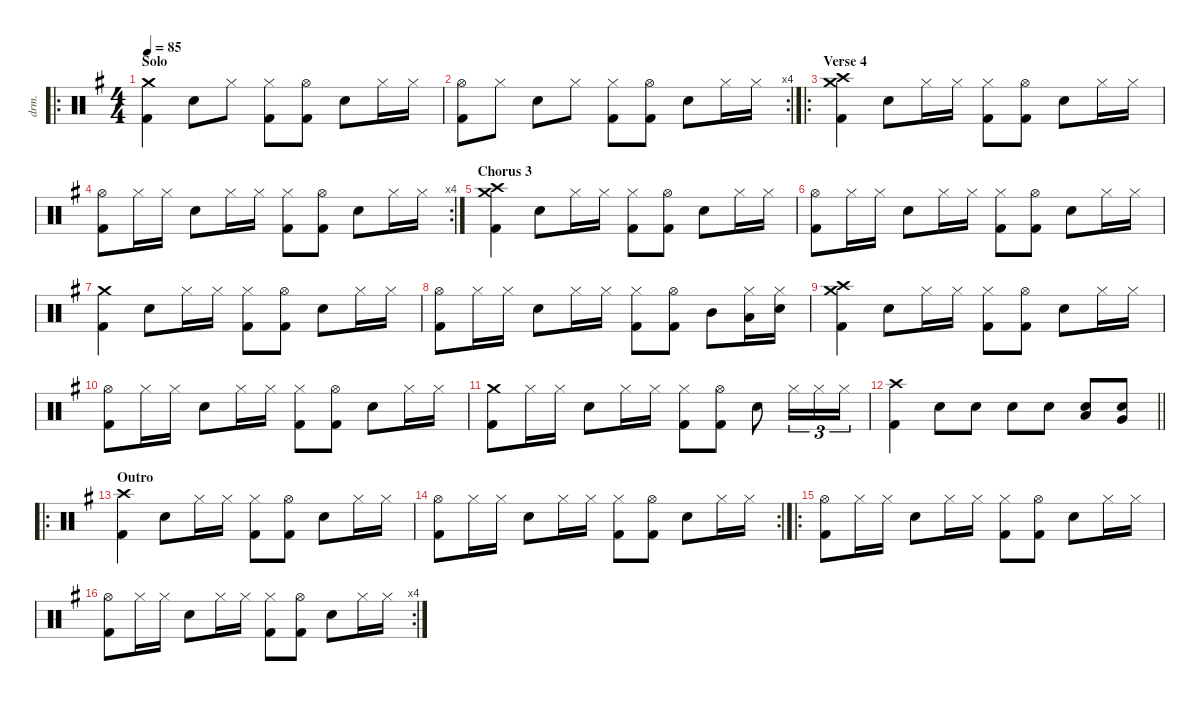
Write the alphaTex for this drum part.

\defaultSystemsLayout 4
\hideDynamics
\bracketExtendMode nobrackets
\otherSystemsTrackNameOrientation horizontal
\track ("Drums" "drm.") {defaultSystemsLayout 4 instrument percussion}
\staff {score}
\articulation defaults
\ro
\ts (4 4)
\section ("" "Solo")
\tempo 85
\clef neutral
\ks g
("Crash medium (hit)"{acc forcenatural} "Kick (hit) 2"{acc forcenatural}).4{dy f beam Down} "Snare (hit) 2"{acc forcenatural}.8{beam Down} "Hi-Hat (closed)"{acc forcenatural}.8{beam Down} ("Hi-Hat (closed)"{acc forcenatural} "Kick (hit) 2"{acc forcenatural}).8{beam Down} ("Hi-Hat (open)"{acc forcenatural} "Kick (hit) 2"{acc forcenatural}).8{beam Down} "Snare (hit) 2"{acc forcenatural}.8{beam Down} "Hi-Hat (closed)"{acc forcenatural}.16{beam Down} "Hi-Hat (closed)"{acc forcenatural}.16{beam Down} |
\rc 4
("Hi-Hat (open)"{acc forcenatural} "Kick (hit) 2"{acc forcenatural}).8{beam Down} "Hi-Hat (closed)"{acc forcenatural}.8{beam Down} "Snare (hit) 2"{acc forcenatural}.8{beam Down} "Hi-Hat (closed)"{acc forcenatural}.8{beam Down} ("Hi-Hat (closed)"{acc forcenatural} "Kick (hit) 2"{acc forcenatural}).8{beam Down} ("Hi-Hat (open)"{acc forcenatural} "Kick (hit) 2"{acc forcenatural}).8{beam Down} "Snare (hit) 2"{acc forcenatural}.8{beam Down} "Hi-Hat (closed)"{acc forcenatural}.16{beam Down} "Hi-Hat (closed)"{acc forcenatural}.16{beam Down} |
\ro
\section ("" "Verse 4")
("Crash medium (hit)"{acc forcenatural} "Crash high (hit)"{acc forcenatural} "Kick (hit) 2"{acc forcenatural}).4{beam Down} "Snare (hit) 2"{acc forcenatural}.8{beam Down} "Hi-Hat (closed)"{acc forcenatural}.16{beam Down} "Hi-Hat (closed)"{acc forcenatural}.16{beam Down} ("Hi-Hat (closed)"{acc forcenatural} "Kick (hit) 2"{acc forcenatural}).8{beam Down} ("Hi-Hat (open)"{acc forcenatural} "Kick (hit) 2"{acc forcenatural}).8{beam Down} "Snare (hit) 2"{acc forcenatural}.8{beam Down} "Hi-Hat (closed)"{acc forcenatural}.16{beam Down} "Hi-Hat (closed)"{acc forcenatural}.16{beam Down} |
\rc 4
("Hi-Hat (open)"{acc forcenatural} "Kick (hit) 2"{acc forcenatural}).8{beam Down} "Hi-Hat (closed)"{acc forcenatural}.16{beam Down} "Hi-Hat (closed)"{acc forcenatural}.16{beam Down} "Snare (hit) 2"{acc forcenatural}.8{beam Down} "Hi-Hat (closed)"{acc forcenatural}.16{beam Down} "Hi-Hat (closed)"{acc forcenatural}.16{beam Down} ("Hi-Hat (closed)"{acc forcenatural} "Kick (hit) 2"{acc forcenatural}).8{beam Down} ("Hi-Hat (open)"{acc forcenatural} "Kick (hit) 2"{acc forcenatural}).8{beam Down} "Snare (hit) 2"{acc forcenatural}.8{beam Down} "Hi-Hat (closed)"{acc forcenatural}.16{beam Down} "Hi-Hat (closed)"{acc forcenatural}.16{beam Down} |
\section ("" "Chorus 3")
("Crash medium (hit)"{acc forcenatural} "Crash high (hit)"{acc forcenatural} "Kick (hit) 2"{acc forcenatural}).4 "Snare (hit) 2"{acc forcenatural}.8 "Hi-Hat (closed)"{acc forcenatural}.16 "Hi-Hat (closed)"{acc forcenatural}.16 ("Hi-Hat (closed)"{acc forcenatural} "Kick (hit) 2"{acc forcenatural}).8 ("Hi-Hat (open)"{acc forcenatural} "Kick (hit) 2"{acc forcenatural}).8 "Snare (hit) 2"{acc forcenatural}.8 "Hi-Hat (closed)"{acc forcenatural}.16 "Hi-Hat (closed)"{acc forcenatural}.16 |
("Hi-Hat (open)"{acc forcenatural} "Kick (hit) 2"{acc forcenatural}).8 "Hi-Hat (closed)"{acc forcenatural}.16 "Hi-Hat (closed)"{acc forcenatural}.16 "Snare (hit) 2"{acc forcenatural}.8 "Hi-Hat (closed)"{acc forcenatural}.16 "Hi-Hat (closed)"{acc forcenatural}.16 ("Hi-Hat (closed)"{acc forcenatural} "Kick (hit) 2"{acc forcenatural}).8 ("Hi-Hat (open)"{acc forcenatural} "Kick (hit) 2"{acc forcenatural}).8 "Snare (hit) 2"{acc forcenatural}.8 "Hi-Hat (closed)"{acc forcenatural}.16 "Hi-Hat (closed)"{acc forcenatural}.16 |
("Crash medium (hit)"{acc forcenatural} "Kick (hit) 2"{acc forcenatural}).4 "Snare (hit) 2"{acc forcenatural}.8 "Hi-Hat (closed)"{acc forcenatural}.16 "Hi-Hat (closed)"{acc forcenatural}.16 ("Hi-Hat (closed)"{acc forcenatural} "Kick (hit) 2"{acc forcenatural}).8 ("Hi-Hat (open)"{acc forcenatural} "Kick (hit) 2"{acc forcenatural}).8 "Snare (hit) 2"{acc forcenatural}.8 "Hi-Hat (closed)"{acc forcenatural}.16 "Hi-Hat (closed)"{acc forcenatural}.16 |
("Hi-Hat (open)"{acc forcenatural} "Kick (hit) 2"{acc forcenatural}).8 "Hi-Hat (closed)"{acc forcenatural}.16 "Hi-Hat (closed)"{acc forcenatural}.16 "Snare (hit) 2"{acc forcenatural}.8 "Hi-Hat (closed)"{acc forcenatural}.16 "Hi-Hat (closed)"{acc forcenatural}.16 ("Hi-Hat (closed)"{acc forcenatural} "Kick (hit) 2"{acc forcenatural}).8 ("Hi-Hat (open)"{acc forcenatural} "Kick (hit) 2"{acc forcenatural}).8 "Mid Tom (hit)"{acc forcenatural}.8 ("Hi-Hat (closed)"{acc forcenatural} "Low Tom (hit)"{acc forcenatural}).16 ("Hi-Hat (closed)"{acc forcenatural} "Snare (hit) 2"{acc forcenatural}).16 |
("Crash medium (hit)"{acc forcenatural} "Crash high (hit)"{acc forcenatural} "Kick (hit) 2"{acc forcenatural}).4 "Snare (hit) 2"{acc forcenatural}.8 "Hi-Hat (closed)"{acc forcenatural}.16 "Hi-Hat (closed)"{acc forcenatural}.16 ("Hi-Hat (closed)"{acc forcenatural} "Kick (hit) 2"{acc forcenatural}).8 ("Hi-Hat (open)"{acc forcenatural} "Kick (hit) 2"{acc forcenatural}).8 "Snare (hit) 2"{acc forcenatural}.8 "Hi-Hat (closed)"{acc forcenatural}.16 "Hi-Hat (closed)"{acc forcenatural}.16 |
("Hi-Hat (open)"{acc forcenatural} "Kick (hit) 2"{acc forcenatural}).8 "Hi-Hat (closed)"{acc forcenatural}.16 "Hi-Hat (closed)"{acc forcenatural}.16 "Snare (hit) 2"{acc forcenatural}.8 "Hi-Hat (closed)"{acc forcenatural}.16 "Hi-Hat (closed)"{acc forcenatural}.16 ("Hi-Hat (closed)"{acc forcenatural} "Kick (hit) 2"{acc forcenatural}).8 ("Hi-Hat (open)"{acc forcenatural} "Kick (hit) 2"{acc forcenatural}).8 "Snare (hit) 2"{acc forcenatural}.8 "Hi-Hat (closed)"{acc forcenatural}.16 "Hi-Hat (closed)"{acc forcenatural}.16 |
("Crash medium (hit)"{acc forcenatural} "Kick (hit) 2"{acc forcenatural}).8 "Hi-Hat (closed)"{acc forcenatural}.16 "Hi-Hat (closed)"{acc forcenatural}.16 "Snare (hit) 2"{acc forcenatural}.8 "Hi-Hat (closed)"{acc forcenatural}.16 "Hi-Hat (closed)"{acc forcenatural}.16 ("Hi-Hat (closed)"{acc forcenatural} "Kick (hit) 2"{acc forcenatural}).8 ("Hi-Hat (open)"{acc forcenatural} "Kick (hit) 2"{acc forcenatural}).8 "Snare (hit) 2"{acc forcenatural}.8 "Hi-Hat (closed)"{acc forcenatural}.16{tu (3 2)} "Hi-Hat (closed)"{acc forcenatural}.16{tu (3 2)} "Hi-Hat (closed)"{acc forcenatural}.16{tu (3 2)} |
\barLineRight lightlight
("Crash high (hit)"{acc forcenatural} "Kick (hit) 2"{acc forcenatural}).4 "Snare (hit) 2"{acc forcenatural}.8{dy p} "Snare (hit) 2"{acc forcenatural}.8{dy mp} "Snare (hit) 2"{acc forcenatural}.8{dy mf} "Snare (hit) 2"{acc forcenatural}.8 ("Snare (hit) 2"{acc forcenatural} "Low Tom (hit)"{acc forcenatural}).8{dy f} ("Snare (hit) 2"{acc forcenatural} "Very Low Tom (hit)"{acc forcenatural}).8 |
\ro
\section ("" "Outro")
("Crash high (hit)"{acc forcenatural} "Kick (hit) 2"{acc forcenatural}).4 "Snare (hit) 2"{acc forcenatural}.8 "Hi-Hat (closed)"{acc forcenatural}.16 "Hi-Hat (closed)"{acc forcenatural}.16 ("Hi-Hat (closed)"{acc forcenatural} "Kick (hit) 2"{acc forcenatural}).8 ("Hi-Hat (open)"{acc forcenatural} "Kick (hit) 2"{acc forcenatural}).8 "Snare (hit) 2"{acc forcenatural}.8 "Hi-Hat (closed)"{acc forcenatural}.16 "Hi-Hat (closed)"{acc forcenatural}.16 |
\rc 2
("Hi-Hat (open)"{acc forcenatural} "Kick (hit) 2"{acc forcenatural}).8 "Hi-Hat (closed)"{acc forcenatural}.16 "Hi-Hat (closed)"{acc forcenatural}.16 "Snare (hit) 2"{acc forcenatural}.8 "Hi-Hat (closed)"{acc forcenatural}.16 "Hi-Hat (closed)"{acc forcenatural}.16 ("Hi-Hat (closed)"{acc forcenatural} "Kick (hit) 2"{acc forcenatural}).8 ("Hi-Hat (open)"{acc forcenatural} "Kick (hit) 2"{acc forcenatural}).8 "Snare (hit) 2"{acc forcenatural}.8 "Hi-Hat (closed)"{acc forcenatural}.16 "Hi-Hat (closed)"{acc forcenatural}.16 |
\ro
("Hi-Hat (open)"{acc forcenatural} "Kick (hit) 2"{acc forcenatural}).8 "Hi-Hat (closed)"{acc forcenatural}.16 "Hi-Hat (closed)"{acc forcenatural}.16 "Snare (hit) 2"{acc forcenatural}.8 "Hi-Hat (closed)"{acc forcenatural}.16 "Hi-Hat (closed)"{acc forcenatural}.16 ("Hi-Hat (closed)"{acc forcenatural} "Kick (hit) 2"{acc forcenatural}).8 ("Hi-Hat (open)"{acc forcenatural} "Kick (hit) 2"{acc forcenatural}).8 "Snare (hit) 2"{acc forcenatural}.8 "Hi-Hat (closed)"{acc forcenatural}.16 "Hi-Hat (closed)"{acc forcenatural}.16 |
\rc 4
("Hi-Hat (open)"{acc forcenatural} "Kick (hit) 2"{acc forcenatural}).8 "Hi-Hat (closed)"{acc forcenatural}.16 "Hi-Hat (closed)"{acc forcenatural}.16 "Snare (hit) 2"{acc forcenatural}.8 "Hi-Hat (closed)"{acc forcenatural}.16 "Hi-Hat (closed)"{acc forcenatural}.16 ("Hi-Hat (closed)"{acc forcenatural} "Kick (hit) 2"{acc forcenatural}).8 ("Hi-Hat (open)"{acc forcenatural} "Kick (hit) 2"{acc forcenatural}).8 "Snare (hit) 2"{acc forcenatural}.8 "Hi-Hat (closed)"{acc forcenatural}.16 "Hi-Hat (closed)"{acc forcenatural}.16
